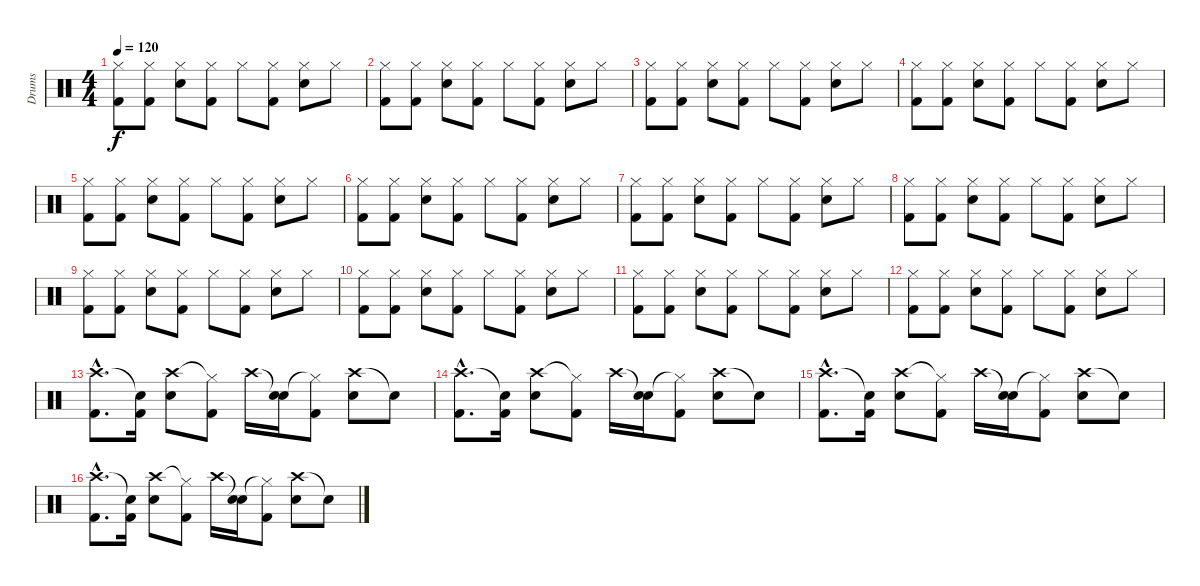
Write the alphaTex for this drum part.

\track ("Drums" "Drums") {instrument percussion}
\staff {score}
\articulation defaults
\ts (4 4)
\tempo 120
\clef neutral
\ks c
("Hi-Hat (closed)" "Kick (hit) 2").8{dy f} ("Hi-Hat (closed)" "Kick (hit) 2").8 ("Hi-Hat (closed)" "Snare (hit) 2").8 ("Hi-Hat (closed)" "Kick (hit) 2").8 "Hi-Hat (closed)".8 ("Hi-Hat (closed)" "Kick (hit) 2").8 ("Hi-Hat (closed)" "Snare (hit) 2").8 "Hi-Hat (closed)".8 |
("Hi-Hat (closed)" "Kick (hit) 2").8 ("Hi-Hat (closed)" "Kick (hit) 2").8 ("Hi-Hat (closed)" "Snare (hit) 2").8 ("Hi-Hat (closed)" "Kick (hit) 2").8 "Hi-Hat (closed)".8 ("Hi-Hat (closed)" "Kick (hit) 2").8 ("Hi-Hat (closed)" "Snare (hit) 2").8 "Hi-Hat (closed)".8 |
("Hi-Hat (closed)" "Kick (hit) 2").8 ("Hi-Hat (closed)" "Kick (hit) 2").8 ("Hi-Hat (closed)" "Snare (hit) 2").8 ("Hi-Hat (closed)" "Kick (hit) 2").8 "Hi-Hat (closed)".8 ("Hi-Hat (closed)" "Kick (hit) 2").8 ("Hi-Hat (closed)" "Snare (hit) 2").8 "Hi-Hat (closed)".8 |
("Hi-Hat (closed)" "Kick (hit) 2").8 ("Hi-Hat (closed)" "Kick (hit) 2").8 ("Hi-Hat (closed)" "Snare (hit) 2").8 ("Hi-Hat (closed)" "Kick (hit) 2").8 "Hi-Hat (closed)".8 ("Hi-Hat (closed)" "Kick (hit) 2").8 ("Hi-Hat (closed)" "Snare (hit) 2").8 "Hi-Hat (closed)".8 |
("Hi-Hat (closed)" "Kick (hit) 2").8 ("Hi-Hat (closed)" "Kick (hit) 2").8 ("Hi-Hat (closed)" "Snare (hit) 2").8 ("Hi-Hat (closed)" "Kick (hit) 2").8 "Hi-Hat (closed)".8 ("Hi-Hat (closed)" "Kick (hit) 2").8 ("Hi-Hat (closed)" "Snare (hit) 2").8 "Hi-Hat (closed)".8 |
("Hi-Hat (closed)" "Kick (hit) 2").8 ("Hi-Hat (closed)" "Kick (hit) 2").8 ("Hi-Hat (closed)" "Snare (hit) 2").8 ("Hi-Hat (closed)" "Kick (hit) 2").8 "Hi-Hat (closed)".8 ("Hi-Hat (closed)" "Kick (hit) 2").8 ("Hi-Hat (closed)" "Snare (hit) 2").8 "Hi-Hat (closed)".8 |
("Hi-Hat (closed)" "Kick (hit) 2").8 ("Hi-Hat (closed)" "Kick (hit) 2").8 ("Hi-Hat (closed)" "Snare (hit) 2").8 ("Hi-Hat (closed)" "Kick (hit) 2").8 "Hi-Hat (closed)".8 ("Hi-Hat (closed)" "Kick (hit) 2").8 ("Hi-Hat (closed)" "Snare (hit) 2").8 "Hi-Hat (closed)".8 |
("Hi-Hat (closed)" "Kick (hit) 2").8 ("Hi-Hat (closed)" "Kick (hit) 2").8 ("Hi-Hat (closed)" "Snare (hit) 2").8 ("Hi-Hat (closed)" "Kick (hit) 2").8 "Hi-Hat (closed)".8 ("Hi-Hat (closed)" "Kick (hit) 2").8 ("Hi-Hat (closed)" "Snare (hit) 2").8 "Hi-Hat (closed)".8 |
("Hi-Hat (closed)" "Kick (hit) 2").8 ("Hi-Hat (closed)" "Kick (hit) 2").8 ("Hi-Hat (closed)" "Snare (hit) 2").8 ("Hi-Hat (closed)" "Kick (hit) 2").8 "Hi-Hat (closed)".8 ("Hi-Hat (closed)" "Kick (hit) 2").8 ("Hi-Hat (closed)" "Snare (hit) 2").8 "Hi-Hat (closed)".8 |
("Hi-Hat (closed)" "Kick (hit) 2").8 ("Hi-Hat (closed)" "Kick (hit) 2").8 ("Hi-Hat (closed)" "Snare (hit) 2").8 ("Hi-Hat (closed)" "Kick (hit) 2").8 "Hi-Hat (closed)".8 ("Hi-Hat (closed)" "Kick (hit) 2").8 ("Hi-Hat (closed)" "Snare (hit) 2").8 "Hi-Hat (closed)".8 |
("Hi-Hat (closed)" "Kick (hit) 2").8 ("Hi-Hat (closed)" "Kick (hit) 2").8 ("Hi-Hat (closed)" "Snare (hit) 2").8 ("Hi-Hat (closed)" "Kick (hit) 2").8 "Hi-Hat (closed)".8 ("Hi-Hat (closed)" "Kick (hit) 2").8 ("Hi-Hat (closed)" "Snare (hit) 2").8 "Hi-Hat (closed)".8 |
("Hi-Hat (closed)" "Kick (hit) 2").8 ("Hi-Hat (closed)" "Kick (hit) 2").8 ("Hi-Hat (closed)" "Snare (hit) 2").8 ("Hi-Hat (closed)" "Kick (hit) 2").8 "Hi-Hat (closed)".8 ("Hi-Hat (closed)" "Kick (hit) 2").8 ("Hi-Hat (closed)" "Snare (hit) 2").8 "Hi-Hat (closed)".8 |
("Crash high (hit)"{hac} "Kick (hit) 2"{hac}).8{d} ("Snare (hit)"{t} "Kick (hit) 2").16 ("Crash high (hit)" "Snare (hit) 2").8 ("Hi-Hat (closed)"{t} "Kick (hit) 2").8 "Crash high (hit)".16 ("Snare (hit)"{t} "Snare (hit) 2").16 ("Hi-Hat (closed)"{t} "Kick (hit) 2").8 ("Crash high (hit)" "Snare (hit) 2").8 "Snare (hit)"{t}.8 |
("Crash high (hit)"{hac} "Kick (hit) 2"{hac}).8{d} ("Snare (hit)"{t} "Kick (hit) 2").16 ("Crash high (hit)" "Snare (hit) 2").8 ("Hi-Hat (closed)"{t} "Kick (hit) 2").8 "Crash high (hit)".16 ("Snare (hit)"{t} "Snare (hit) 2").16 ("Hi-Hat (closed)"{t} "Kick (hit) 2").8 ("Crash high (hit)" "Snare (hit) 2").8 "Snare (hit)"{t}.8 |
("Crash high (hit)"{hac} "Kick (hit) 2"{hac}).8{d} ("Snare (hit)"{t} "Kick (hit) 2").16 ("Crash high (hit)" "Snare (hit) 2").8 ("Hi-Hat (closed)"{t} "Kick (hit) 2").8 "Crash high (hit)".16 ("Snare (hit)"{t} "Snare (hit) 2").16 ("Hi-Hat (closed)"{t} "Kick (hit) 2").8 ("Crash high (hit)" "Snare (hit) 2").8 "Snare (hit)"{t}.8 |
("Crash high (hit)"{hac} "Kick (hit) 2"{hac}).8{d} ("Snare (hit)"{t} "Kick (hit) 2").16 ("Crash high (hit)" "Snare (hit) 2").8 ("Hi-Hat (closed)"{t} "Kick (hit) 2").8 "Crash high (hit)".16 ("Snare (hit)"{t} "Snare (hit) 2").16 ("Hi-Hat (closed)"{t} "Kick (hit) 2").8 ("Crash high (hit)" "Snare (hit) 2").8 "Snare (hit)"{t}.8
